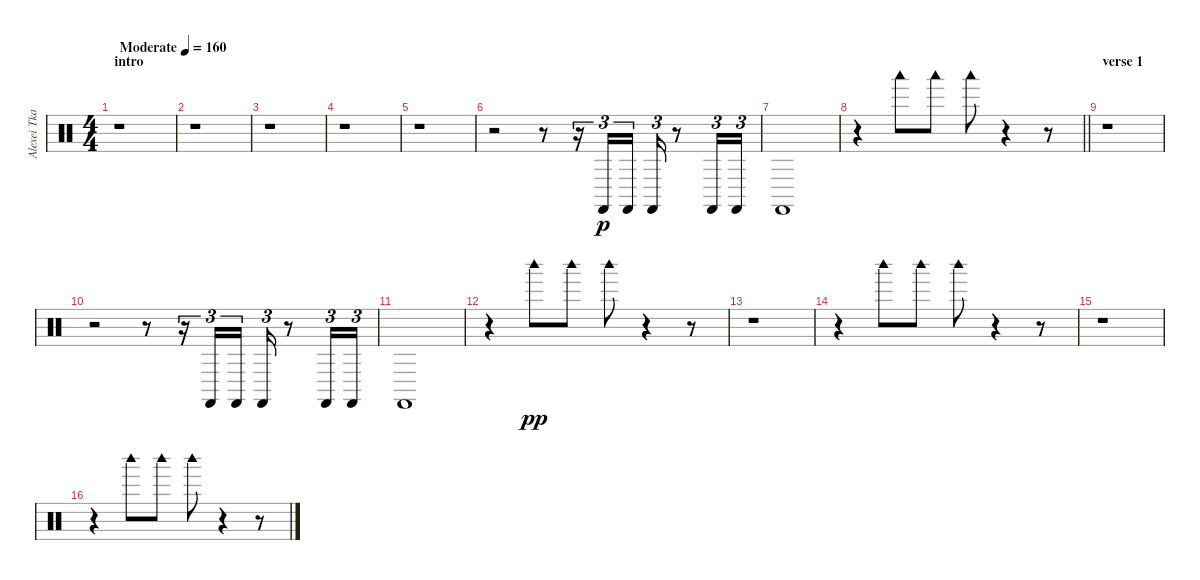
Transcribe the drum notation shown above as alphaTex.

\track ("Alexei Tkachevskiy " "Alexei Tka") {instrument percussion}
\staff {score}
\articulation defaults
\ts (4 4)
\section ("" "intro")
\tempo (160 "Moderate")
\clef neutral
\ks c
r.1{dy p} |
r.1 |
r.1 |
r.1 |
r.1 |
r.2 r.8 r.16{tu (3 2)} "Castanets (hit)".16{tu (3 2)} "Castanets (hit)".16{tu (3 2)} "Castanets (hit)".16{tu (3 2)} r.8 "Castanets (hit)".16{tu (3 2)} "Castanets (hit)".16{tu (3 2)} |
"Castanets (hit)".1 |
\barLineRight lightlight
r.4 "Woodblock low (hit)".8 "Woodblock low (hit)".8 "Woodblock low (hit)".8 r.4 r.8 |
\section ("" "verse 1")
r.1 |
r.2 r.8 r.16{tu (3 2)} "Castanets (hit)".16{tu (3 2)} "Castanets (hit)".16{tu (3 2)} "Castanets (hit)".16{tu (3 2)} r.8 "Castanets (hit)".16{tu (3 2)} "Castanets (hit)".16{tu (3 2)} |
"Castanets (hit)".1 |
r.4 "Woodblock high (hit)".8{dy pp} "Woodblock high (hit)".8 "Woodblock high (hit)".8 r.4 r.8 |
r.1 |
r.4 "Woodblock high (hit)".8 "Woodblock high (hit)".8 "Woodblock high (hit)".8 r.4 r.8 |
r.1 |
r.4 "Woodblock high (hit)".8 "Woodblock high (hit)".8 "Woodblock high (hit)".8 r.4 r.8
